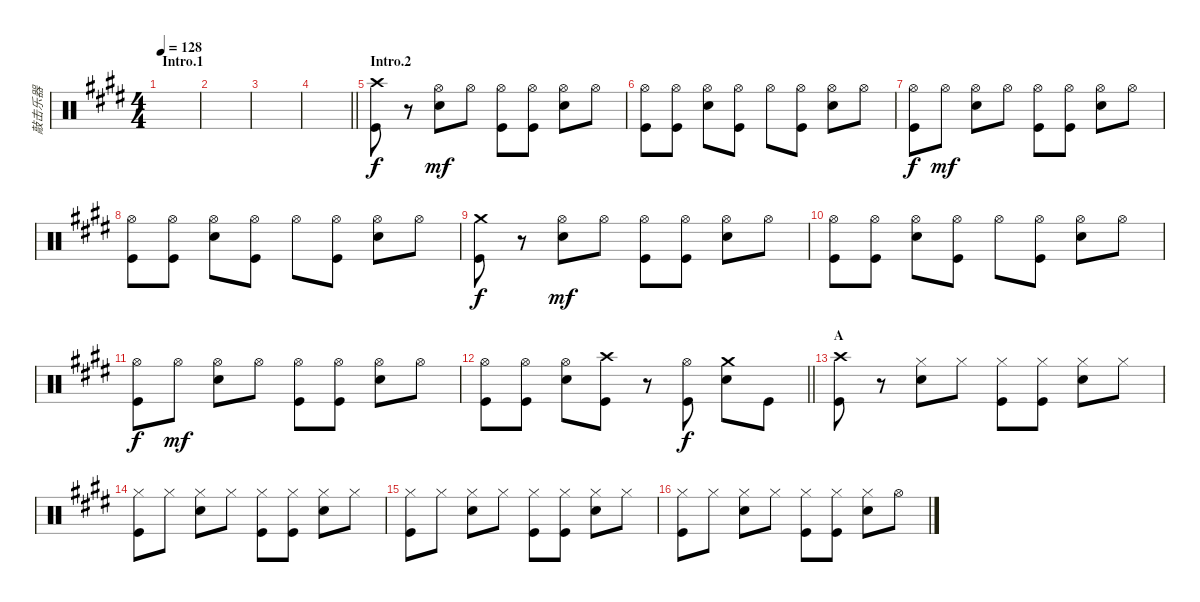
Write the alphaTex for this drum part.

\track ("敲击乐器" "敲击乐器") {instrument percussion}
\staff {score}
\articulation defaults
\ts (4 4)
\section ("" "Intro.1")
\tempo 128
\clef neutral
\ks e
|
|
|
\barLineRight lightlight
|
\section ("" "Intro.2")
("Crash high (hit)" "Kick (hit)").8 r.8 ("Hi-Hat (open)" "Snare (hit) 2").8{dy mf} "Hi-Hat (open)".8 ("Hi-Hat (open)" "Kick (hit)").8 ("Hi-Hat (open)" "Kick (hit)").8 ("Hi-Hat (open)" "Snare (hit) 2").8 "Hi-Hat (open)".8 |
("Hi-Hat (open)" "Kick (hit)").8 ("Hi-Hat (open)" "Kick (hit)").8 ("Hi-Hat (open)" "Snare (hit) 2").8 ("Hi-Hat (open)" "Kick (hit)").8 "Hi-Hat (open)".8 ("Hi-Hat (open)" "Kick (hit)").8 ("Hi-Hat (open)" "Snare (hit) 2").8 "Hi-Hat (open)".8 |
("Hi-Hat (open)" "Kick (hit)").8{dy f} "Hi-Hat (open)".8{dy mf} ("Hi-Hat (open)" "Snare (hit) 2").8 "Hi-Hat (open)".8 ("Hi-Hat (open)" "Kick (hit)").8 ("Hi-Hat (open)" "Kick (hit)").8 ("Hi-Hat (open)" "Snare (hit) 2").8 "Hi-Hat (open)".8 |
("Hi-Hat (open)" "Kick (hit)").8 ("Hi-Hat (open)" "Kick (hit)").8 ("Hi-Hat (open)" "Snare (hit) 2").8 ("Hi-Hat (open)" "Kick (hit)").8 "Hi-Hat (open)".8 ("Hi-Hat (open)" "Kick (hit)").8 ("Hi-Hat (open)" "Snare (hit) 2").8 "Hi-Hat (open)".8 |
("Crash medium (hit)" "Kick (hit)").8{dy f} r.8 ("Hi-Hat (open)" "Snare (hit) 2").8{dy mf} "Hi-Hat (open)".8 ("Hi-Hat (open)" "Kick (hit)").8 ("Hi-Hat (open)" "Kick (hit)").8 ("Hi-Hat (open)" "Snare (hit) 2").8 "Hi-Hat (open)".8 |
("Hi-Hat (open)" "Kick (hit)").8 ("Hi-Hat (open)" "Kick (hit)").8 ("Hi-Hat (open)" "Snare (hit) 2").8 ("Hi-Hat (open)" "Kick (hit)").8 "Hi-Hat (open)".8 ("Hi-Hat (open)" "Kick (hit)").8 ("Hi-Hat (open)" "Snare (hit) 2").8 "Hi-Hat (open)".8 |
("Hi-Hat (open)" "Kick (hit)").8{dy f} "Hi-Hat (open)".8{dy mf} ("Hi-Hat (open)" "Snare (hit) 2").8 "Hi-Hat (open)".8 ("Hi-Hat (open)" "Kick (hit)").8 ("Hi-Hat (open)" "Kick (hit)").8 ("Hi-Hat (open)" "Snare (hit) 2").8 "Hi-Hat (open)".8 |
\barLineRight lightlight
("Hi-Hat (open)" "Kick (hit)").8 ("Hi-Hat (open)" "Kick (hit)").8 ("Hi-Hat (open)" "Snare (hit) 2").8 ("Crash high (hit)" "Kick (hit)").8 r.8 ("Hi-Hat (open)" "Kick (hit)").8{dy f} ("Crash medium (hit)" "Snare (hit) 2").8 "Kick (hit)".8 |
\section ("" "A")
("Crash high (hit)" "Kick (hit)").8 r.8 ("Hi-Hat (closed)" "Snare (hit) 2").8 "Hi-Hat (closed)".8 ("Hi-Hat (closed)" "Kick (hit)").8 ("Hi-Hat (closed)" "Kick (hit)").8 ("Hi-Hat (closed)" "Snare (hit) 2").8 "Hi-Hat (closed)".8 |
("Hi-Hat (closed)" "Kick (hit)").8 "Hi-Hat (closed)".8 ("Hi-Hat (closed)" "Snare (hit) 2").8 "Hi-Hat (closed)".8 ("Hi-Hat (closed)" "Kick (hit)").8 ("Hi-Hat (closed)" "Kick (hit)").8 ("Hi-Hat (closed)" "Snare (hit) 2").8 "Hi-Hat (closed)".8 |
("Hi-Hat (closed)" "Kick (hit)").8 "Hi-Hat (closed)".8 ("Hi-Hat (closed)" "Snare (hit) 2").8 "Hi-Hat (closed)".8 ("Hi-Hat (closed)" "Kick (hit)").8 ("Hi-Hat (closed)" "Kick (hit)").8 ("Hi-Hat (closed)" "Snare (hit) 2").8 "Hi-Hat (closed)".8 |
("Hi-Hat (closed)" "Kick (hit)").8 "Hi-Hat (closed)".8 ("Hi-Hat (closed)" "Snare (hit) 2").8 "Hi-Hat (closed)".8 ("Hi-Hat (closed)" "Kick (hit)").8 ("Hi-Hat (closed)" "Kick (hit)").8 ("Hi-Hat (closed)" "Snare (hit) 2").8 "Hi-Hat (open)".8
